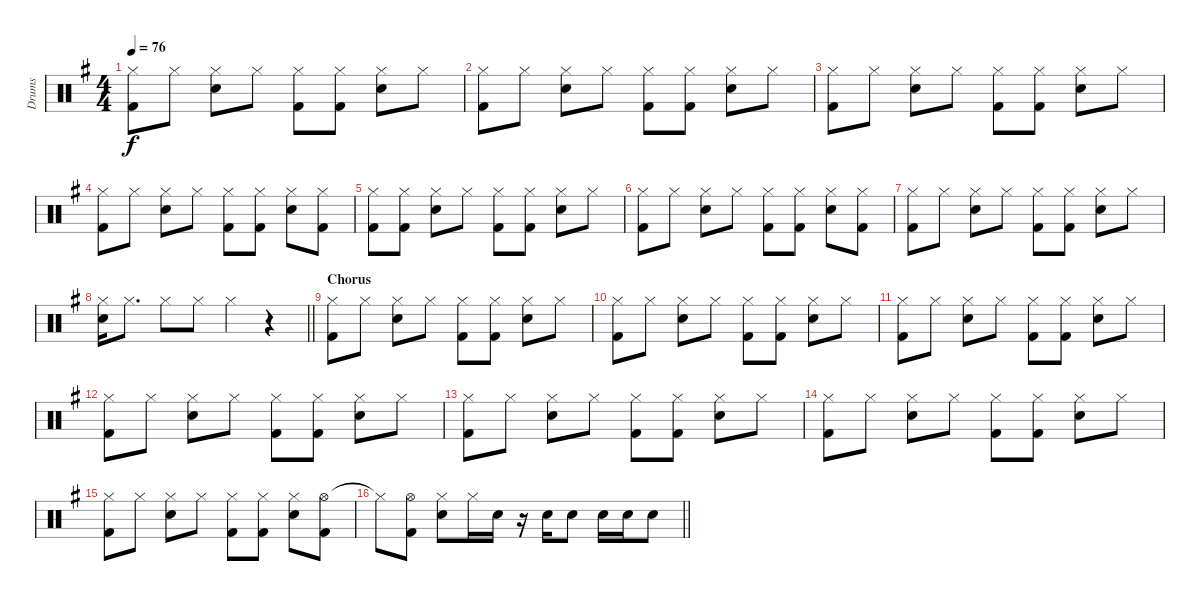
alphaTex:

\track ("Drums" "Drums") {instrument percussion}
\staff {score}
\articulation defaults
\ts (4 4)
\tempo 76
\clef neutral
\ks eminor
("Hi-Hat (closed)" "Kick (hit) 2").8{dy f} "Hi-Hat (closed)".8 ("Hi-Hat (closed)" "Snare (hit) 2").8 "Hi-Hat (closed)".8 ("Hi-Hat (closed)" "Kick (hit) 2").8 ("Hi-Hat (closed)" "Kick (hit) 2").8 ("Hi-Hat (closed)" "Snare (hit) 2").8 "Hi-Hat (closed)".8 |
("Hi-Hat (closed)" "Kick (hit) 2").8 "Hi-Hat (closed)".8 ("Hi-Hat (closed)" "Snare (hit) 2").8 "Hi-Hat (closed)".8 ("Hi-Hat (closed)" "Kick (hit) 2").8 ("Hi-Hat (closed)" "Kick (hit) 2").8 ("Hi-Hat (closed)" "Snare (hit) 2").8 "Hi-Hat (closed)".8 |
("Hi-Hat (closed)" "Kick (hit) 2").8 "Hi-Hat (closed)".8 ("Hi-Hat (closed)" "Snare (hit) 2").8 "Hi-Hat (closed)".8 ("Hi-Hat (closed)" "Kick (hit) 2").8 ("Hi-Hat (closed)" "Kick (hit) 2").8 ("Hi-Hat (closed)" "Snare (hit) 2").8 "Hi-Hat (closed)".8 |
("Hi-Hat (closed)" "Kick (hit) 2").8 "Hi-Hat (closed)".8 ("Hi-Hat (closed)" "Snare (hit) 2").8 "Hi-Hat (closed)".8 ("Hi-Hat (closed)" "Kick (hit) 2").8 ("Hi-Hat (closed)" "Kick (hit) 2").8 ("Hi-Hat (closed)" "Snare (hit) 2").8 ("Hi-Hat (closed)" "Kick (hit) 2").8 |
("Hi-Hat (closed)" "Kick (hit) 2").8 ("Hi-Hat (closed)" "Kick (hit) 2").8 ("Hi-Hat (closed)" "Snare (hit) 2").8 "Hi-Hat (closed)".8 ("Hi-Hat (closed)" "Kick (hit) 2").8 ("Hi-Hat (closed)" "Kick (hit) 2").8 ("Hi-Hat (closed)" "Snare (hit) 2").8 "Hi-Hat (closed)".8 |
("Hi-Hat (closed)" "Kick (hit) 2").8 "Hi-Hat (closed)".8 ("Hi-Hat (closed)" "Snare (hit) 2").8 "Hi-Hat (closed)".8 ("Hi-Hat (closed)" "Kick (hit) 2").8 ("Hi-Hat (closed)" "Kick (hit) 2").8 ("Hi-Hat (closed)" "Snare (hit) 2").8 ("Hi-Hat (closed)" "Kick (hit) 2").8 |
("Hi-Hat (closed)" "Kick (hit) 2").8 "Hi-Hat (closed)".8 ("Hi-Hat (closed)" "Snare (hit) 2").8 "Hi-Hat (closed)".8 ("Hi-Hat (closed)" "Kick (hit) 2").8 ("Hi-Hat (closed)" "Kick (hit) 2").8 ("Hi-Hat (closed)" "Snare (hit) 2").8 "Hi-Hat (closed)".8 |
\barLineRight lightlight
("Hi-Hat (closed)" "Snare (hit) 2").16 "Hi-Hat (closed)".8{d} "Hi-Hat (closed)".8 "Hi-Hat (closed)".8 "Hi-Hat (closed)".4 r.4 |
\section ("" "Chorus")
("Hi-Hat (closed)" "Kick (hit) 2").8 "Hi-Hat (closed)".8 ("Hi-Hat (closed)" "Snare (hit) 2").8 "Hi-Hat (closed)".8 ("Hi-Hat (closed)" "Kick (hit) 2").8 ("Hi-Hat (closed)" "Kick (hit) 2").8 ("Hi-Hat (closed)" "Snare (hit) 2").8 "Hi-Hat (closed)".8 |
("Hi-Hat (closed)" "Kick (hit) 2").8 "Hi-Hat (closed)".8 ("Hi-Hat (closed)" "Snare (hit) 2").8 "Hi-Hat (closed)".8 ("Hi-Hat (closed)" "Kick (hit) 2").8 ("Hi-Hat (closed)" "Kick (hit) 2").8 ("Hi-Hat (closed)" "Snare (hit) 2").8 "Hi-Hat (closed)".8 |
("Hi-Hat (closed)" "Kick (hit) 2").8 "Hi-Hat (closed)".8 ("Hi-Hat (closed)" "Snare (hit) 2").8 "Hi-Hat (closed)".8 ("Hi-Hat (closed)" "Kick (hit) 2").8 ("Hi-Hat (closed)" "Kick (hit) 2").8 ("Hi-Hat (closed)" "Snare (hit) 2").8 "Hi-Hat (closed)".8 |
("Hi-Hat (closed)" "Kick (hit) 2").8 "Hi-Hat (closed)".8 ("Hi-Hat (closed)" "Snare (hit) 2").8 "Hi-Hat (closed)".8 ("Hi-Hat (closed)" "Kick (hit) 2").8 ("Hi-Hat (closed)" "Kick (hit) 2").8 ("Hi-Hat (closed)" "Snare (hit) 2").8 "Hi-Hat (closed)".8 |
("Hi-Hat (closed)" "Kick (hit) 2").8 "Hi-Hat (closed)".8 ("Hi-Hat (closed)" "Snare (hit) 2").8 "Hi-Hat (closed)".8 ("Hi-Hat (closed)" "Kick (hit) 2").8 ("Hi-Hat (closed)" "Kick (hit) 2").8 ("Hi-Hat (closed)" "Snare (hit) 2").8 "Hi-Hat (closed)".8 |
("Hi-Hat (closed)" "Kick (hit) 2").8 "Hi-Hat (closed)".8 ("Hi-Hat (closed)" "Snare (hit) 2").8 "Hi-Hat (closed)".8 ("Hi-Hat (closed)" "Kick (hit) 2").8 ("Hi-Hat (closed)" "Kick (hit) 2").8 ("Hi-Hat (closed)" "Snare (hit) 2").8 "Hi-Hat (closed)".8 |
("Hi-Hat (closed)" "Kick (hit) 2").8 "Hi-Hat (closed)".8 ("Hi-Hat (closed)" "Snare (hit) 2").8 "Hi-Hat (closed)".8 ("Hi-Hat (closed)" "Kick (hit) 2").8 ("Hi-Hat (closed)" "Kick (hit) 2").8 ("Hi-Hat (closed)" "Snare (hit) 2").8 ("Hi-Hat (open)" "Kick (hit) 2").8 |
\barLineRight lightlight "Hi-Hat (closed)"{t}.8
("Hi-Hat (open)" "Kick (hit) 2").8 ("Hi-Hat (closed)" "Snare (hit) 2").8 "Hi-Hat (closed)".16 "Snare (hit) 2".16 r.16 "Snare (hit) 2".16 "Snare (hit) 2".8 "Snare (hit) 2".16 "Snare (hit) 2".16 "Snare (hit) 2".8
